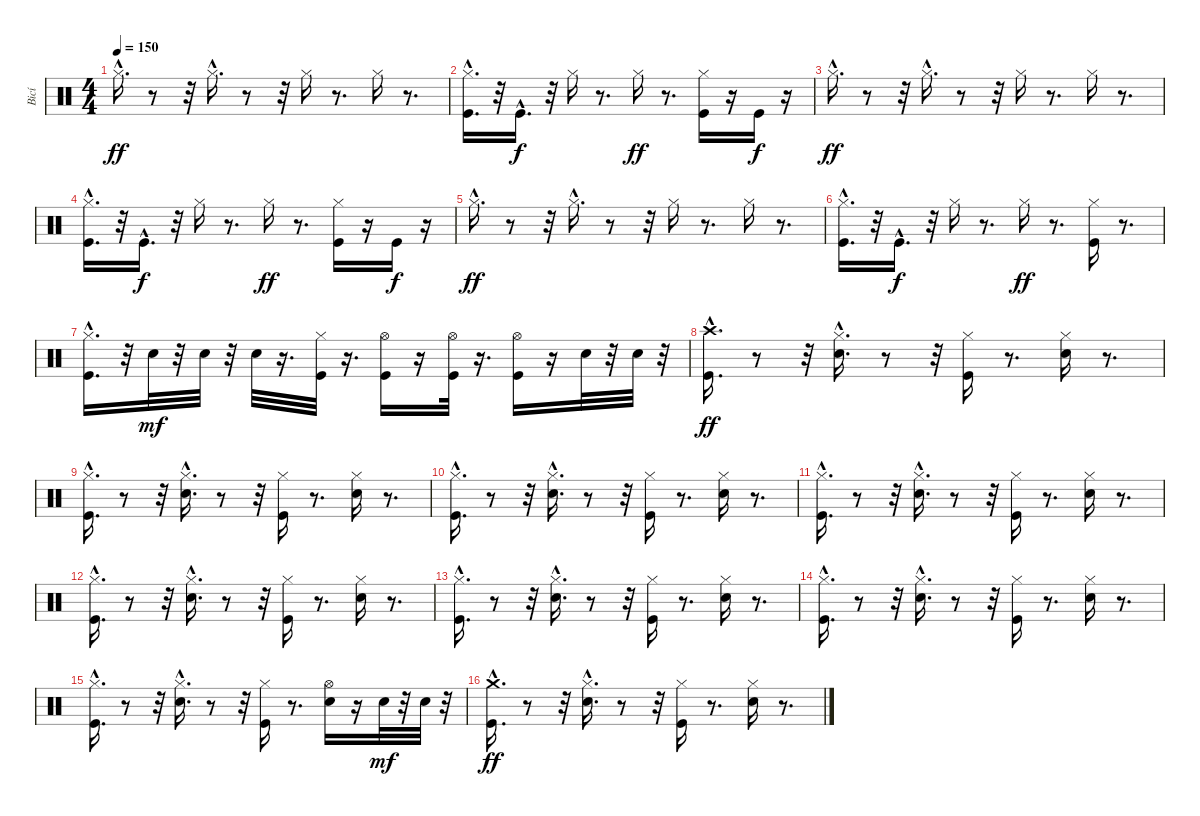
\track ("Bicí" "Bicí") {instrument percussion}
\staff {score}
\articulation defaults
\ts (4 4)
\tempo 150
\clef neutral
\ks c "Hi-Hat (closed)"{hac}.16{d dy ff}
r.8 r.32 "Hi-Hat (closed)"{hac}.16{d} r.8 r.32 "Hi-Hat (closed)".16 r.8{d} "Hi-Hat (closed)".16 r.8{d} |
("Hi-Hat (closed)"{hac} "Kick (hit)").16{d} r.32 "Kick (hit)"{hac}.16{d dy f} r.32 "Hi-Hat (closed)".16 r.8{d} "Hi-Hat (closed)".16{dy ff} r.8{d} ("Hi-Hat (closed)" "Kick (hit)").16 r.16 "Kick (hit)".16{dy f} r.16 |
"Hi-Hat (closed)"{hac}.16{d dy ff} r.8 r.32 "Hi-Hat (closed)"{hac}.16{d} r.8 r.32 "Hi-Hat (closed)".16 r.8{d} "Hi-Hat (closed)".16 r.8{d} |
("Hi-Hat (closed)"{hac} "Kick (hit)").16{d} r.32 "Kick (hit)"{hac}.16{d dy f} r.32 "Hi-Hat (closed)".16 r.8{d} "Hi-Hat (closed)".16{dy ff} r.8{d} ("Hi-Hat (closed)" "Kick (hit)").16 r.16 "Kick (hit)".16{dy f} r.16 |
"Hi-Hat (closed)"{hac}.16{d dy ff} r.8 r.32 "Hi-Hat (closed)"{hac}.16{d} r.8 r.32 "Hi-Hat (closed)".16 r.8{d} "Hi-Hat (closed)".16 r.8{d} |
("Hi-Hat (closed)"{hac} "Kick (hit)").16{d} r.32 "Kick (hit)"{hac}.16{d dy f} r.32 "Hi-Hat (closed)".16 r.8{d} "Hi-Hat (closed)".16{dy ff} r.8{d} ("Hi-Hat (closed)" "Kick (hit)").16 r.8{d} |
("Hi-Hat (closed)"{hac} "Kick (hit)").16{d} r.32 "Snare (hit) 2".32{dy mf} r.32 "Snare (hit) 2".32 r.32 "Snare (hit) 2".32 r.16{d} ("Kick (hit)" "Hi-Hat (closed)").32 r.16{d} ("Hi-Hat (open)" "Kick (hit)").16 r.16 ("Kick (hit)" "Hi-Hat (open)").32 r.16{d} ("Hi-Hat (open)" "Kick (hit)").16 r.16 "Snare (hit) 2".32 r.32 "Snare (hit) 2".32 r.32 |
("Crash high (hit)"{hac} "Kick (hit)").16{d dy ff} r.8 r.32 ("Hi-Hat (closed)"{hac} "Snare (hit) 2").16{d} r.8 r.32 ("Kick (hit)" "Hi-Hat (closed)").16 r.8{d} ("Snare (hit) 2" "Hi-Hat (closed)").16 r.8{d} |
("Hi-Hat (closed)"{hac} "Kick (hit)").16{d} r.8 r.32 ("Hi-Hat (closed)"{hac} "Snare (hit) 2").16{d} r.8 r.32 ("Kick (hit)" "Hi-Hat (closed)").16 r.8{d} ("Snare (hit) 2" "Hi-Hat (closed)").16 r.8{d} |
("Hi-Hat (closed)"{hac} "Kick (hit)").16{d} r.8 r.32 ("Hi-Hat (closed)"{hac} "Snare (hit) 2").16{d} r.8 r.32 ("Kick (hit)" "Hi-Hat (closed)").16 r.8{d} ("Snare (hit) 2" "Hi-Hat (closed)").16 r.8{d} |
("Hi-Hat (closed)"{hac} "Kick (hit)").16{d} r.8 r.32 ("Hi-Hat (closed)"{hac} "Snare (hit) 2").16{d} r.8 r.32 ("Kick (hit)" "Hi-Hat (closed)").16 r.8{d} ("Snare (hit) 2" "Hi-Hat (closed)").16 r.8{d} |
("Hi-Hat (closed)"{hac} "Kick (hit)").16{d} r.8 r.32 ("Hi-Hat (closed)"{hac} "Snare (hit) 2").16{d} r.8 r.32 ("Kick (hit)" "Hi-Hat (closed)").16 r.8{d} ("Snare (hit) 2" "Hi-Hat (closed)").16 r.8{d} |
("Hi-Hat (closed)"{hac} "Kick (hit)").16{d} r.8 r.32 ("Hi-Hat (closed)"{hac} "Snare (hit) 2").16{d} r.8 r.32 ("Kick (hit)" "Hi-Hat (closed)").16 r.8{d} ("Snare (hit) 2" "Hi-Hat (closed)").16 r.8{d} |
("Hi-Hat (closed)"{hac} "Kick (hit)").16{d} r.8 r.32 ("Hi-Hat (closed)"{hac} "Snare (hit) 2").16{d} r.8 r.32 ("Kick (hit)" "Hi-Hat (closed)").16 r.8{d} ("Snare (hit) 2" "Hi-Hat (closed)").16 r.8{d} |
("Hi-Hat (closed)"{hac} "Kick (hit)").16{d} r.8 r.32 ("Hi-Hat (closed)"{hac} "Snare (hit) 2").16{d} r.8 r.32 ("Kick (hit)" "Hi-Hat (closed)").16 r.8{d} ("Snare (hit) 2" "Hi-Hat (open)").16 r.16 "Snare (hit) 2".32{dy mf} r.32 "Snare (hit) 2".32 r.32 |
("Crash medium (hit)"{hac} "Kick (hit)").16{d dy ff} r.8 r.32 ("Hi-Hat (closed)"{hac} "Snare (hit) 2").16{d} r.8 r.32 ("Kick (hit)" "Hi-Hat (closed)").16 r.8{d} ("Snare (hit) 2" "Hi-Hat (closed)").16 r.8{d}
